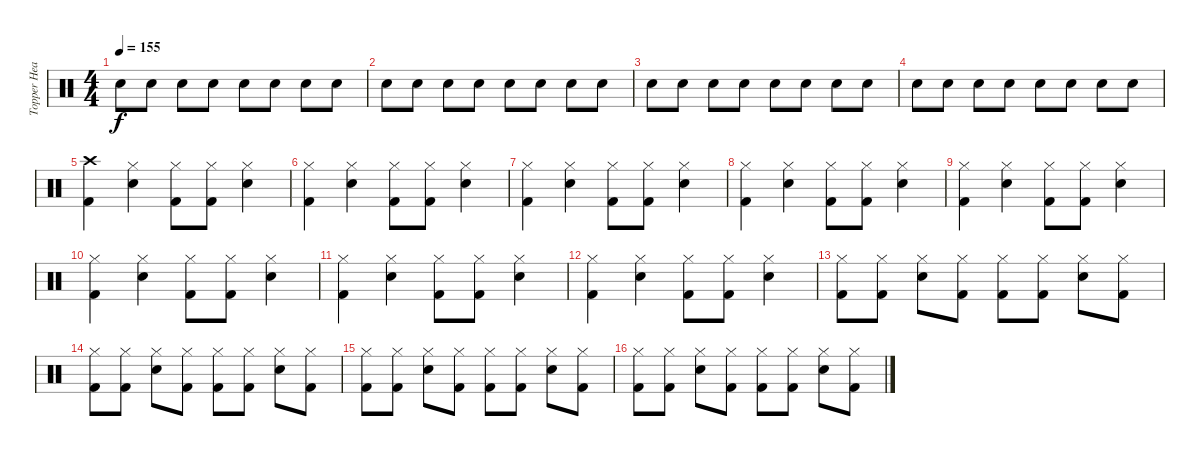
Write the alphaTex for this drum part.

\track ("Topper Headon - Drums" "Topper Hea") {instrument percussion}
\staff {score}
\articulation defaults
\ts (4 4)
\tempo 155
\clef neutral
\ks c "Snare (hit) 2".8{dy f} "Snare (hit) 2".8 "Snare (hit) 2".8 "Snare (hit) 2".8 "Snare (hit) 2".8 "Snare (hit) 2".8 "Snare (hit) 2".8 "Snare (hit) 2".8
|
"Snare (hit) 2".8{volume 13} "Snare (hit) 2".8 "Snare (hit) 2".8 "Snare (hit) 2".8 "Snare (hit) 2".8 "Snare (hit) 2".8 "Snare (hit) 2".8 "Snare (hit) 2".8 |
"Snare (hit) 2".8 "Snare (hit) 2".8 "Snare (hit) 2".8 "Snare (hit) 2".8 "Snare (hit) 2".8 "Snare (hit) 2".8 "Snare (hit) 2".8 "Snare (hit) 2".8 |
"Snare (hit) 2".8 "Snare (hit) 2".8 "Snare (hit) 2".8 "Snare (hit) 2".8 "Snare (hit) 2".8 "Snare (hit) 2".8 "Snare (hit) 2".8 "Snare (hit) 2".8 |
("Kick (hit) 2" "Crash high (hit)").4 ("Snare (hit) 2" "Hi-Hat (closed)").4 ("Kick (hit) 2" "Hi-Hat (closed)").8 ("Kick (hit) 2" "Hi-Hat (closed)").8 ("Snare (hit) 2" "Hi-Hat (closed)").4 |
("Kick (hit) 2" "Hi-Hat (closed)").4 ("Snare (hit) 2" "Hi-Hat (closed)").4 ("Kick (hit) 2" "Hi-Hat (closed)").8 ("Kick (hit) 2" "Hi-Hat (closed)").8 ("Snare (hit) 2" "Hi-Hat (closed)").4 |
("Kick (hit) 2" "Hi-Hat (closed)").4 ("Snare (hit) 2" "Hi-Hat (closed)").4 ("Kick (hit) 2" "Hi-Hat (closed)").8 ("Kick (hit) 2" "Hi-Hat (closed)").8 ("Snare (hit) 2" "Hi-Hat (closed)").4 |
("Kick (hit) 2" "Hi-Hat (closed)").4 ("Snare (hit) 2" "Hi-Hat (closed)").4 ("Kick (hit) 2" "Hi-Hat (closed)").8 ("Kick (hit) 2" "Hi-Hat (closed)").8 ("Snare (hit) 2" "Hi-Hat (closed)").4 |
("Kick (hit) 2" "Hi-Hat (closed)").4 ("Snare (hit) 2" "Hi-Hat (closed)").4 ("Kick (hit) 2" "Hi-Hat (closed)").8 ("Kick (hit) 2" "Hi-Hat (closed)").8 ("Snare (hit) 2" "Hi-Hat (closed)").4 |
("Kick (hit) 2" "Hi-Hat (closed)").4 ("Snare (hit) 2" "Hi-Hat (closed)").4 ("Kick (hit) 2" "Hi-Hat (closed)").8 ("Kick (hit) 2" "Hi-Hat (closed)").8 ("Snare (hit) 2" "Hi-Hat (closed)").4 |
("Kick (hit) 2" "Hi-Hat (closed)").4 ("Snare (hit) 2" "Hi-Hat (closed)").4 ("Kick (hit) 2" "Hi-Hat (closed)").8 ("Kick (hit) 2" "Hi-Hat (closed)").8 ("Snare (hit) 2" "Hi-Hat (closed)").4 |
("Kick (hit) 2" "Hi-Hat (closed)").4 ("Snare (hit) 2" "Hi-Hat (closed)").4 ("Kick (hit) 2" "Hi-Hat (closed)").8 ("Kick (hit) 2" "Hi-Hat (closed)").8 ("Snare (hit) 2" "Hi-Hat (closed)").4 |
("Kick (hit) 2" "Hi-Hat (closed)").8 ("Kick (hit) 2" "Hi-Hat (closed)").8 ("Snare (hit) 2" "Hi-Hat (closed)").8 ("Kick (hit) 2" "Hi-Hat (closed)").8 ("Kick (hit) 2" "Hi-Hat (closed)").8 ("Kick (hit) 2" "Hi-Hat (closed)").8 ("Snare (hit) 2" "Hi-Hat (closed)").8 ("Kick (hit) 2" "Hi-Hat (closed)").8 |
("Kick (hit) 2" "Hi-Hat (closed)").8 ("Kick (hit) 2" "Hi-Hat (closed)").8 ("Snare (hit) 2" "Hi-Hat (closed)").8 ("Kick (hit) 2" "Hi-Hat (closed)").8 ("Kick (hit) 2" "Hi-Hat (closed)").8 ("Kick (hit) 2" "Hi-Hat (closed)").8 ("Snare (hit) 2" "Hi-Hat (closed)").8 ("Kick (hit) 2" "Hi-Hat (closed)").8 |
("Kick (hit) 2" "Hi-Hat (closed)").8 ("Kick (hit) 2" "Hi-Hat (closed)").8 ("Snare (hit) 2" "Hi-Hat (closed)").8 ("Kick (hit) 2" "Hi-Hat (closed)").8 ("Kick (hit) 2" "Hi-Hat (closed)").8 ("Kick (hit) 2" "Hi-Hat (closed)").8 ("Snare (hit) 2" "Hi-Hat (closed)").8 ("Kick (hit) 2" "Hi-Hat (closed)").8 |
("Kick (hit) 2" "Hi-Hat (closed)").8 ("Kick (hit) 2" "Hi-Hat (closed)").8 ("Snare (hit) 2" "Hi-Hat (closed)").8 ("Kick (hit) 2" "Hi-Hat (closed)").8 ("Kick (hit) 2" "Hi-Hat (closed)").8 ("Kick (hit) 2" "Hi-Hat (closed)").8 ("Snare (hit) 2" "Hi-Hat (closed)").8 ("Kick (hit) 2" "Hi-Hat (closed)").8
